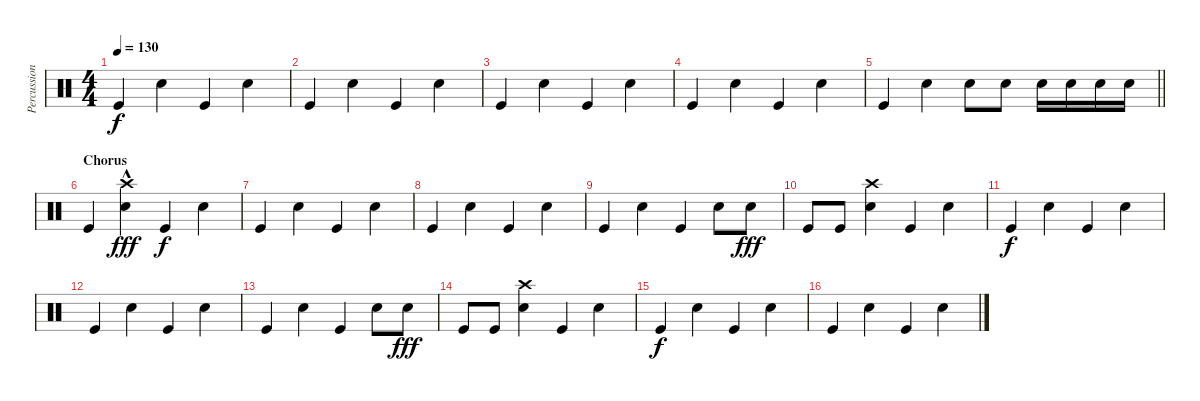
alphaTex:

\track ("Percussion" "Percussion") {instrument percussion}
\staff {score}
\articulation defaults
\ts (4 4)
\tempo 130
\clef neutral
\ks c "Kick (hit)".4{dy f} "Snare (hit) 2".4 "Kick (hit)".4 "Snare (hit) 2".4
|
"Kick (hit)".4 "Snare (hit) 2".4 "Kick (hit)".4 "Snare (hit) 2".4 |
"Kick (hit)".4 "Snare (hit) 2".4 "Kick (hit)".4 "Snare (hit) 2".4 |
"Kick (hit)".4 "Snare (hit) 2".4 "Kick (hit)".4 "Snare (hit) 2".4 |
\barLineRight lightlight "Kick (hit)".4 "Snare (hit) 2".4 "Snare (hit) 2".8 "Snare (hit) 2".8 "Snare (hit) 2".16 "Snare (hit) 2".16 "Snare (hit) 2".16 "Snare (hit) 2".16
|
\section ("" "Chorus")
"Kick (hit)".4 ("Crash high (hit)" "Snare (hit) 2"{hac}).4{dy fff} "Kick (hit)".4{dy f} "Snare (hit) 2".4 |
"Kick (hit)".4 "Snare (hit) 2".4 "Kick (hit)".4 "Snare (hit) 2".4 |
"Kick (hit)".4 "Snare (hit) 2".4 "Kick (hit)".4 "Snare (hit) 2".4 |
"Kick (hit)".4 "Snare (hit) 2".4 "Kick (hit)".4 "Snare (hit) 2".8 "Snare (hit) 2".8{dy fff} |
"Kick (hit)".8 "Kick (hit)".8 ("Crash high (hit)" "Snare (hit) 2").4 "Kick (hit)".4 "Snare (hit) 2".4 |
"Kick (hit)".4{dy f} "Snare (hit) 2".4 "Kick (hit)".4 "Snare (hit) 2".4 |
"Kick (hit)".4 "Snare (hit) 2".4 "Kick (hit)".4 "Snare (hit) 2".4 |
"Kick (hit)".4 "Snare (hit) 2".4 "Kick (hit)".4 "Snare (hit) 2".8 "Snare (hit) 2".8{dy fff} |
"Kick (hit)".8 "Kick (hit)".8 ("Crash high (hit)" "Snare (hit) 2").4 "Kick (hit)".4 "Snare (hit) 2".4 |
"Kick (hit)".4{dy f} "Snare (hit) 2".4 "Kick (hit)".4 "Snare (hit) 2".4 |
"Kick (hit)".4 "Snare (hit) 2".4 "Kick (hit)".4 "Snare (hit) 2".4
